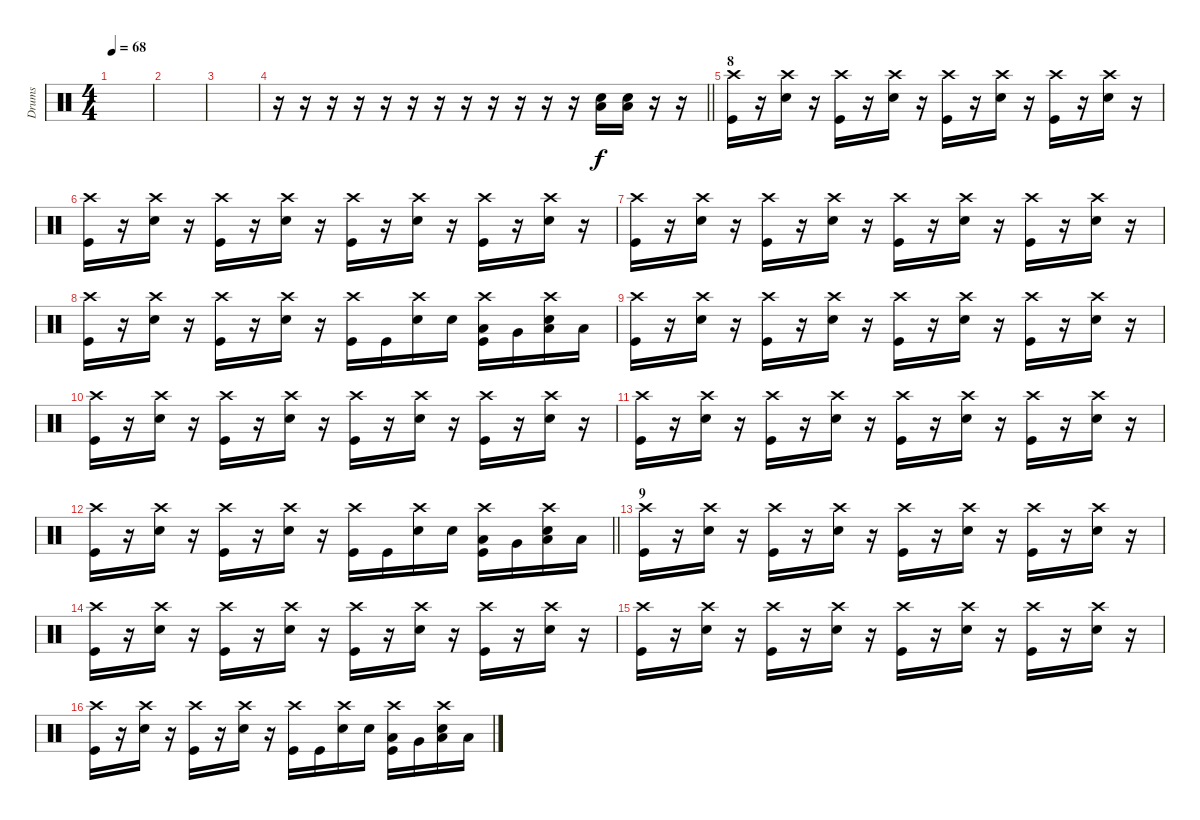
\track ("Drums" "Drums") {instrument percussion}
\staff {score}
\articulation defaults
\ts (4 4)
\tempo 68
\clef neutral
\ks c
|
|
|
\barLineRight lightlight
r.16 r.16 r.16 r.16 r.16 r.16 r.16 r.16 r.16 r.16 r.16 r.16 ("Low Floor Tom (hit)" "Snare (hit) 2").16{dy f} ("Low Floor Tom (hit)" "Snare (hit) 2").16 r.16 r.16 |
\section ("" "8")
("Crash high (hit)" "Kick (hit)").16 r.16 ("Crash high (hit)" "Snare (hit) 2").16 r.16 ("Crash high (hit)" "Kick (hit)").16 r.16 ("Crash high (hit)" "Snare (hit) 2").16 r.16 ("Crash high (hit)" "Kick (hit)").16 r.16 ("Crash high (hit)" "Snare (hit) 2").16 r.16 ("Crash high (hit)" "Kick (hit)").16 r.16 ("Crash high (hit)" "Snare (hit) 2").16 r.16 |
("Crash high (hit)" "Kick (hit)").16 r.16 ("Crash high (hit)" "Snare (hit) 2").16 r.16 ("Crash high (hit)" "Kick (hit)").16 r.16 ("Crash high (hit)" "Snare (hit) 2").16 r.16 ("Crash high (hit)" "Kick (hit)").16 r.16 ("Crash high (hit)" "Snare (hit) 2").16 r.16 ("Crash high (hit)" "Kick (hit)").16 r.16 ("Crash high (hit)" "Snare (hit) 2").16 r.16 |
("Crash high (hit)" "Kick (hit)").16 r.16 ("Crash high (hit)" "Snare (hit) 2").16 r.16 ("Crash high (hit)" "Kick (hit)").16 r.16 ("Crash high (hit)" "Snare (hit) 2").16 r.16 ("Crash high (hit)" "Kick (hit)").16 r.16 ("Crash high (hit)" "Snare (hit) 2").16 r.16 ("Crash high (hit)" "Kick (hit)").16 r.16 ("Crash high (hit)" "Snare (hit) 2").16 r.16 |
("Crash high (hit)" "Kick (hit)").16 r.16 ("Crash high (hit)" "Snare (hit) 2").16 r.16 ("Crash high (hit)" "Kick (hit)").16 r.16 ("Crash high (hit)" "Snare (hit) 2").16 r.16 ("Crash high (hit)" "Kick (hit)").16 "Kick (hit)".16 ("Crash high (hit)" "Snare (hit) 2").16 "Snare (hit) 2".16 ("Crash high (hit)" "Low Tom (hit)" "Kick (hit)").16 "Very Low Tom (hit)".16 ("Crash high (hit)" "Low Floor Tom (hit)" "Snare (hit) 2").16 "Low Floor Tom (hit)".16 |
("Crash high (hit)" "Kick (hit)").16 r.16 ("Crash high (hit)" "Snare (hit) 2").16 r.16 ("Crash high (hit)" "Kick (hit)").16 r.16 ("Crash high (hit)" "Snare (hit) 2").16 r.16 ("Crash high (hit)" "Kick (hit)").16 r.16 ("Crash high (hit)" "Snare (hit) 2").16 r.16 ("Crash high (hit)" "Kick (hit)").16 r.16 ("Crash high (hit)" "Snare (hit) 2").16 r.16 |
("Crash high (hit)" "Kick (hit)").16 r.16 ("Crash high (hit)" "Snare (hit) 2").16 r.16 ("Crash high (hit)" "Kick (hit)").16 r.16 ("Crash high (hit)" "Snare (hit) 2").16 r.16 ("Crash high (hit)" "Kick (hit)").16 r.16 ("Crash high (hit)" "Snare (hit) 2").16 r.16 ("Crash high (hit)" "Kick (hit)").16 r.16 ("Crash high (hit)" "Snare (hit) 2").16 r.16 |
("Crash high (hit)" "Kick (hit)").16 r.16 ("Crash high (hit)" "Snare (hit) 2").16 r.16 ("Crash high (hit)" "Kick (hit)").16 r.16 ("Crash high (hit)" "Snare (hit) 2").16 r.16 ("Crash high (hit)" "Kick (hit)").16 r.16 ("Crash high (hit)" "Snare (hit) 2").16 r.16 ("Crash high (hit)" "Kick (hit)").16 r.16 ("Crash high (hit)" "Snare (hit) 2").16 r.16 |
\barLineRight lightlight
("Crash high (hit)" "Kick (hit)").16 r.16 ("Crash high (hit)" "Snare (hit) 2").16 r.16 ("Crash high (hit)" "Kick (hit)").16 r.16 ("Crash high (hit)" "Snare (hit) 2").16 r.16 ("Crash high (hit)" "Kick (hit)").16 "Kick (hit)".16 ("Crash high (hit)" "Snare (hit) 2").16 "Snare (hit) 2".16 ("Crash high (hit)" "Low Tom (hit)" "Kick (hit)").16 "Very Low Tom (hit)".16 ("Crash high (hit)" "Low Floor Tom (hit)" "Snare (hit) 2").16 "Low Floor Tom (hit)".16 |
\section ("" "9")
("Crash high (hit)" "Kick (hit)").16 r.16 ("Crash high (hit)" "Snare (hit) 2").16 r.16 ("Crash high (hit)" "Kick (hit)").16 r.16 ("Crash high (hit)" "Snare (hit) 2").16 r.16 ("Crash high (hit)" "Kick (hit)").16 r.16 ("Crash high (hit)" "Snare (hit) 2").16 r.16 ("Crash high (hit)" "Kick (hit)").16 r.16 ("Crash high (hit)" "Snare (hit) 2").16 r.16 |
("Crash high (hit)" "Kick (hit)").16 r.16 ("Crash high (hit)" "Snare (hit) 2").16 r.16 ("Crash high (hit)" "Kick (hit)").16 r.16 ("Crash high (hit)" "Snare (hit) 2").16 r.16 ("Crash high (hit)" "Kick (hit)").16 r.16 ("Crash high (hit)" "Snare (hit) 2").16 r.16 ("Crash high (hit)" "Kick (hit)").16 r.16 ("Crash high (hit)" "Snare (hit) 2").16 r.16 |
("Crash high (hit)" "Kick (hit)").16 r.16 ("Crash high (hit)" "Snare (hit) 2").16 r.16 ("Crash high (hit)" "Kick (hit)").16 r.16 ("Crash high (hit)" "Snare (hit) 2").16 r.16 ("Crash high (hit)" "Kick (hit)").16 r.16 ("Crash high (hit)" "Snare (hit) 2").16 r.16 ("Crash high (hit)" "Kick (hit)").16 r.16 ("Crash high (hit)" "Snare (hit) 2").16 r.16 |
("Crash high (hit)" "Kick (hit)").16 r.16 ("Crash high (hit)" "Snare (hit) 2").16 r.16 ("Crash high (hit)" "Kick (hit)").16 r.16 ("Crash high (hit)" "Snare (hit) 2").16 r.16 ("Crash high (hit)" "Kick (hit)").16 "Kick (hit)".16 ("Crash high (hit)" "Snare (hit) 2").16 "Snare (hit) 2".16 ("Crash high (hit)" "Low Tom (hit)" "Kick (hit)").16 "Very Low Tom (hit)".16 ("Crash high (hit)" "Low Floor Tom (hit)" "Snare (hit) 2").16 "Low Floor Tom (hit)".16
